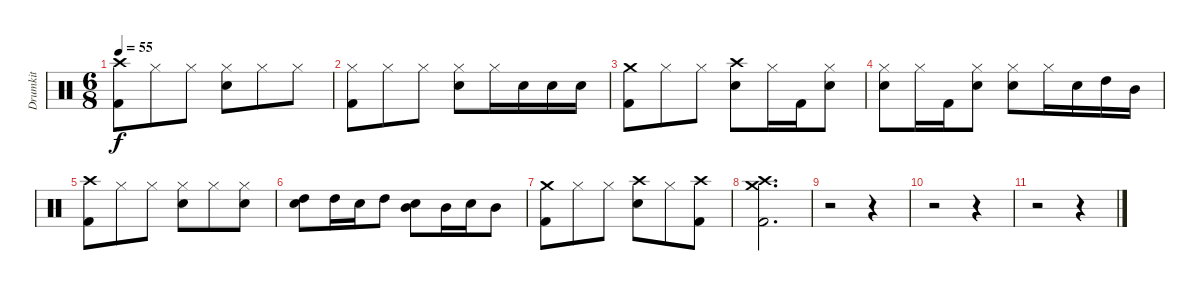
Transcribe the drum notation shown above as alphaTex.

\track ("Drumkit" "Drumkit") {instrument percussion}
\staff {score}
\articulation defaults
\ts (6 8)
\tempo 55
\clef neutral
\ks c
("Crash high (hit)" "Kick (hit) 2").8{dy f} "Hi-Hat (closed)".8 "Hi-Hat (closed)".8 ("Hi-Hat (closed)" "Snare (hit) 2").8 "Hi-Hat (closed)".8 "Hi-Hat (closed)".8 |
("Hi-Hat (closed)" "Kick (hit) 2").8 "Hi-Hat (closed)".8 "Hi-Hat (closed)".8 ("Hi-Hat (closed)" "Snare (hit) 2").8 "Hi-Hat (closed)".16 "Snare (hit) 2".16 "Snare (hit) 2".16 "Snare (hit) 2".16 |
("Crash medium (hit)" "Kick (hit) 2").8 "Hi-Hat (closed)".8 "Hi-Hat (closed)".8 ("Crash high (hit)" "Snare (hit) 2").8 "Hi-Hat (closed)".16 "Kick (hit) 2".16 ("Hi-Hat (closed)" "Snare (hit) 2").8 |
("Hi-Hat (closed)" "Snare (hit) 2").8 "Hi-Hat (closed)".16 "Kick (hit) 2".16 ("Hi-Hat (closed)" "Snare (hit) 2").8 ("Hi-Hat (closed)" "Snare (hit) 2").8 "Hi-Hat (closed)".16 "Snare (hit) 2".16 "High Tom (hit)".16 "Mid Tom (hit)".16 |
("Crash high (hit)" "Kick (hit) 2").8 "Hi-Hat (closed)".8 "Hi-Hat (closed)".8 ("Hi-Hat (closed)" "Snare (hit) 2").8 "Hi-Hat (closed)".8 ("Hi-Hat (closed)" "Snare (hit) 2").8 |
("High Tom (hit)" "Snare (hit) 2").8 "High Tom (hit)".16 "Snare (hit) 2".16 "High Tom (hit)".8 ("Mid Tom (hit)" "Snare (hit) 2").8 "Mid Tom (hit)".16 "Snare (hit) 2".16 "Mid Tom (hit)".8 |
("Crash medium (hit)" "Kick (hit) 2").8 "Hi-Hat (closed)".8 "Hi-Hat (closed)".8 ("Crash high (hit)" "Snare (hit) 2").8 "Hi-Hat (closed)".8 ("Crash high (hit)" "Kick (hit) 2").8 |
("Crash high (hit)" "Crash medium (hit)" "Kick (hit) 2").2{d} |
r.2 r.4 |
r.2 r.4 |
r.2 r.4
